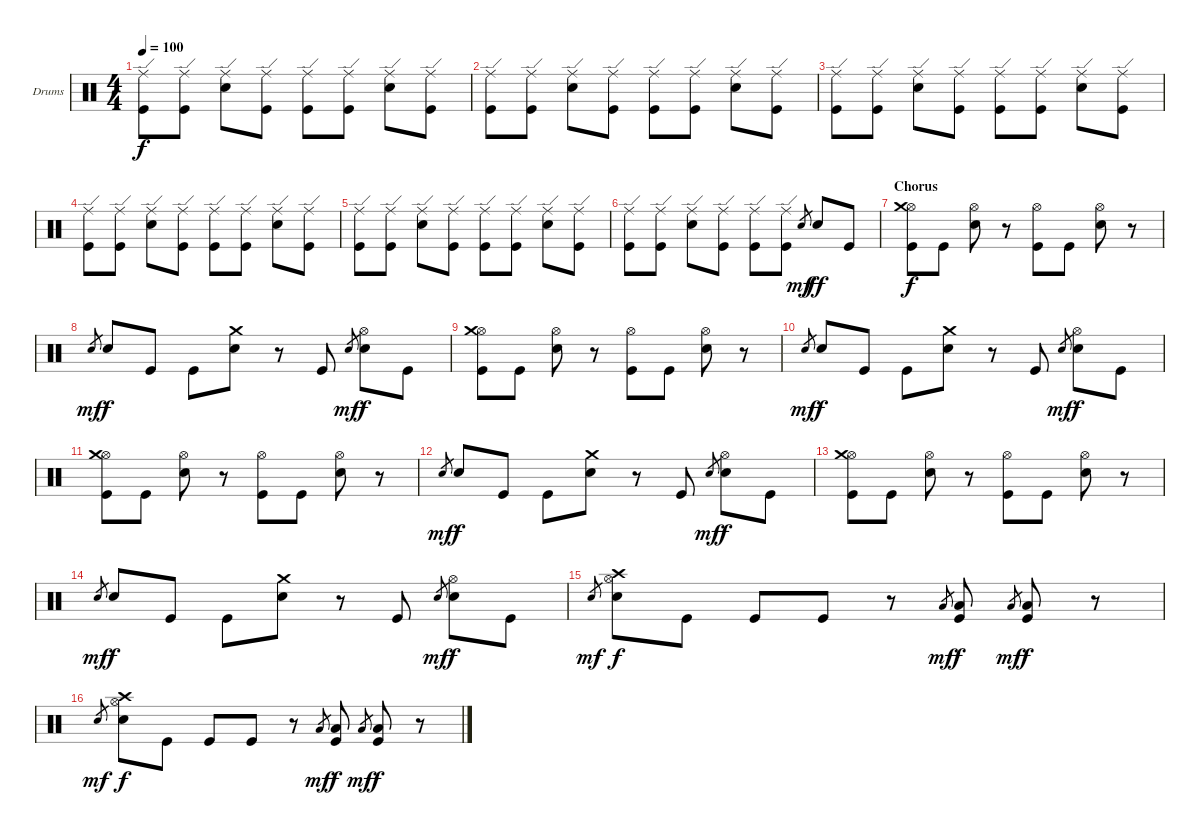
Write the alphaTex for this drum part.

\defaultSystemsLayout 4
\bracketExtendMode groupsimilarinstruments
\firstSystemTrackNameOrientation horizontal
\otherSystemsTrackNameOrientation horizontal
\track ("Drumkit" "Drums") {instrument percussion}
\staff {score}
\articulation defaults
\ts (4 4)
\tempo 100
\clef neutral
\scale
1.02648
\ks c
("Ride (edge)" "Kick (hit)").8{dy f} ("Ride (edge)" "Kick (hit)").8 ("Ride (edge)" "Snare (hit) 2").8 ("Ride (edge)" "Kick (hit)").8 ("Ride (edge)" "Kick (hit)").8 ("Ride (edge)" "Kick (hit)").8 ("Ride (edge)" "Snare (hit) 2").8 ("Ride (edge)" "Kick (hit)").8 |
\scale
0.973518 ("Ride (edge)" "Kick (hit)").8 ("Ride (edge)" "Kick (hit)").8 ("Ride (edge)" "Snare (hit) 2").8 ("Ride (edge)" "Kick (hit)").8 ("Ride (edge)" "Kick (hit)").8 ("Ride (edge)" "Kick (hit)").8 ("Ride (edge)" "Snare (hit) 2").8 ("Ride (edge)" "Kick (hit)").8 |
\scale
1.02648 ("Ride (edge)" "Kick (hit)").8 ("Ride (edge)" "Kick (hit)").8 ("Ride (edge)" "Snare (hit) 2").8 ("Ride (edge)" "Kick (hit)").8 ("Ride (edge)" "Kick (hit)").8 ("Ride (edge)" "Kick (hit)").8 ("Ride (edge)" "Snare (hit) 2").8 ("Ride (edge)" "Kick (hit)").8 |
\scale
0.973518 ("Ride (edge)" "Kick (hit)").8 ("Ride (edge)" "Kick (hit)").8 ("Ride (edge)" "Snare (hit) 2").8 ("Ride (edge)" "Kick (hit)").8 ("Ride (edge)" "Kick (hit)").8 ("Ride (edge)" "Kick (hit)").8 ("Ride (edge)" "Snare (hit) 2").8 ("Ride (edge)" "Kick (hit)").8 |
\scale
1.02648 ("Ride (edge)" "Kick (hit)").8 ("Ride (edge)" "Kick (hit)").8 ("Ride (edge)" "Snare (hit) 2").8 ("Ride (edge)" "Kick (hit)").8 ("Ride (edge)" "Kick (hit)").8 ("Ride (edge)" "Kick (hit)").8 ("Ride (edge)" "Snare (hit) 2").8 ("Ride (edge)" "Kick (hit)").8 |
\scale
0.973518 ("Ride (edge)" "Kick (hit)").8 ("Ride (edge)" "Kick (hit)").8 ("Ride (edge)" "Snare (hit) 2").8 ("Ride (edge)" "Kick (hit)").8 ("Ride (edge)" "Kick (hit)").8 ("Ride (edge)" "Kick (hit)").8 "Snare (hit) 2".8{gr dy mf} "Snare (hit) 2".8{dy ff} "Kick (hit)".8 |
\section ("" "Chorus")
\scale
1.02648 ("Hi-Hat (open)" "Crash medium (hit)" "Kick (hit)").8{dy f} "Kick (hit)".8 ("Hi-Hat (open)" "Snare (hit) 2").8 r.8 ("Hi-Hat (open)" "Kick (hit)").8 "Kick (hit)".8 ("Hi-Hat (open)" "Snare (hit) 2").8 r.8 |
\scale
0.973518 "Snare (hit) 2".8{gr dy mf} "Snare (hit) 2".8{dy f} "Kick (hit)".8 "Kick (hit)".8 ("Crash medium (hit)" "Snare (hit) 2").8 r.8 "Kick (hit)".8 "Snare (hit) 2".8{gr dy mf} ("Hi-Hat (open)" "Snare (hit) 2").8{dy f} "Kick (hit)".8 |
\scale
1.02648 ("Hi-Hat (open)" "Crash medium (hit)" "Kick (hit)").8 "Kick (hit)".8 ("Hi-Hat (open)" "Snare (hit) 2").8 r.8 ("Hi-Hat (open)" "Kick (hit)").8 "Kick (hit)".8 ("Hi-Hat (open)" "Snare (hit) 2").8 r.8 |
\scale
0.973518 "Snare (hit) 2".8{gr dy mf} "Snare (hit) 2".8{dy f} "Kick (hit)".8 "Kick (hit)".8 ("Crash medium (hit)" "Snare (hit) 2").8 r.8 "Kick (hit)".8 "Snare (hit) 2".8{gr dy mf} ("Hi-Hat (open)" "Snare (hit) 2").8{dy f} "Kick (hit)".8 |
\scale
1.02648 ("Hi-Hat (open)" "Crash medium (hit)" "Kick (hit)").8 "Kick (hit)".8 ("Hi-Hat (open)" "Snare (hit) 2").8 r.8 ("Hi-Hat (open)" "Kick (hit)").8 "Kick (hit)".8 ("Hi-Hat (open)" "Snare (hit) 2").8 r.8 |
\scale
0.973518 "Snare (hit) 2".8{gr dy mf} "Snare (hit) 2".8{dy f} "Kick (hit)".8 "Kick (hit)".8 ("Crash medium (hit)" "Snare (hit) 2").8 r.8 "Kick (hit)".8 "Snare (hit) 2".8{gr dy mf} ("Hi-Hat (open)" "Snare (hit) 2").8{dy f} "Kick (hit)".8 |
\scale
1.02648 ("Hi-Hat (open)" "Crash medium (hit)" "Kick (hit)").8 "Kick (hit)".8 ("Hi-Hat (open)" "Snare (hit) 2").8 r.8 ("Hi-Hat (open)" "Kick (hit)").8 "Kick (hit)".8 ("Hi-Hat (open)" "Snare (hit) 2").8 r.8 |
\scale
0.973518 "Snare (hit) 2".8{gr dy mf} "Snare (hit) 2".8{dy f} "Kick (hit)".8 "Kick (hit)".8 ("Crash medium (hit)" "Snare (hit) 2").8 r.8 "Kick (hit)".8 "Snare (hit) 2".8{gr dy mf} ("Hi-Hat (open)" "Snare (hit) 2").8{dy f} "Kick (hit)".8 |
\scale
1.02648 "Snare (hit) 2".8{gr dy mf} ("Hi-Hat (open)" "Crash high (hit)" "Snare (hit) 2").8{dy f} "Kick (hit)".8 "Kick (hit)".8 "Kick (hit)".8 r.8 "Low Tom (hit)".8{gr dy mf} ("Low Tom (hit)" "Kick (hit)").8{dy f} "Low Tom (hit)".8{gr dy mf} ("Low Tom (hit)" "Kick (hit)").8{dy f} r.8 |
\scale
0.973518 "Snare (hit) 2".8{gr dy mf} ("Hi-Hat (open)" "Crash high (hit)" "Snare (hit) 2").8{dy f} "Kick (hit)".8 "Kick (hit)".8 "Kick (hit)".8 r.8 "Low Tom (hit)".8{gr dy mf} ("Low Tom (hit)" "Kick (hit)").8{dy f} "Low Tom (hit)".8{gr dy mf} ("Low Tom (hit)" "Kick (hit)").8{dy f} r.8
